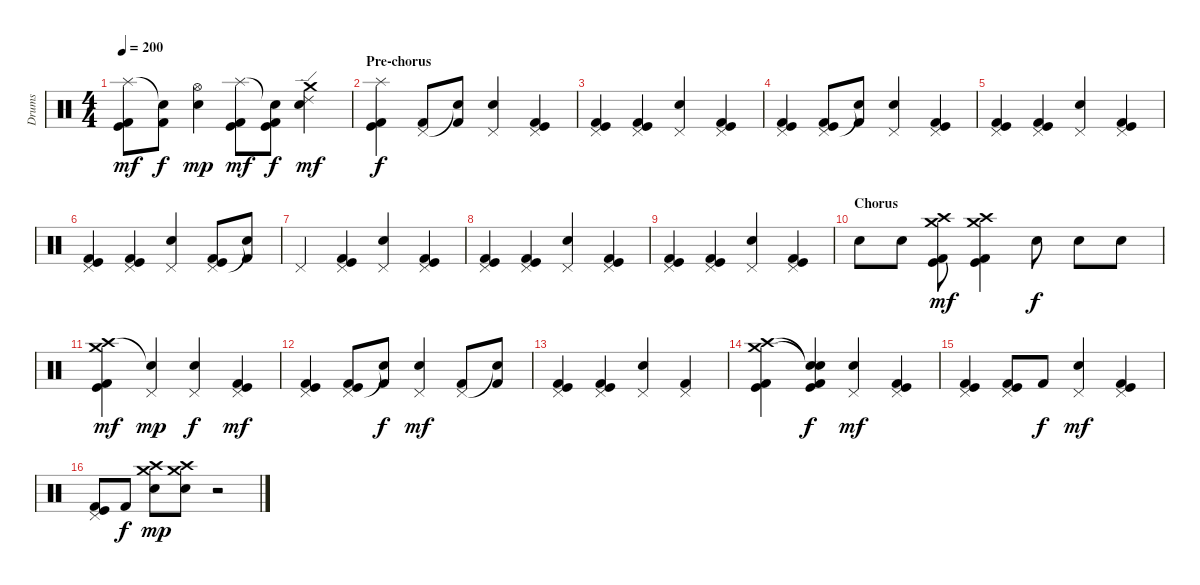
\track ("Drums" "Drums") {instrument percussion}
\staff {score}
\articulation defaults
\ts (4 4)
\tempo 200
\clef neutral
\ks c
("Splash (hit)" "Kick (hit)" "Kick (hit) 2").8{dy mf} ("Snare (hit)"{t} "Kick (hit) 2").8{dy f} ("Hi-Hat (open)" "Snare (hit) 2").4{dy mp} ("Splash (hit)" "Kick (hit)" "Kick (hit) 2").8{dy mf} ("Snare (hit)"{t} "Kick (hit)" "Kick (hit) 2").8{dy f} ("Ride (edge) 2" "Crash medium (hit)" "Snare (hit) 2").4{dy mf} |
\section ("" "Pre-chorus")
("Splash (hit)" "Kick (hit)" "Kick (hit) 2").4{dy f} ("Pedal Hi-Hat (hit)" "Kick (hit) 2").8 ("Snare (hit)"{t} "Kick (hit) 2").8 ("Pedal Hi-Hat (hit)" "Snare (hit) 2").4 ("Pedal Hi-Hat (hit)" "Kick (hit)" "Kick (hit) 2").4 |
("Pedal Hi-Hat (hit)" "Kick (hit)" "Kick (hit) 2").4 ("Pedal Hi-Hat (hit)" "Kick (hit)" "Kick (hit) 2").4 ("Pedal Hi-Hat (hit)" "Snare (hit) 2").4 ("Pedal Hi-Hat (hit)" "Kick (hit)" "Kick (hit) 2").4 |
("Pedal Hi-Hat (hit)" "Kick (hit)" "Kick (hit) 2").4 ("Pedal Hi-Hat (hit)" "Kick (hit)" "Kick (hit) 2").8 ("Snare (hit)"{t} "Kick (hit) 2").8 ("Pedal Hi-Hat (hit)" "Snare (hit) 2").4 ("Pedal Hi-Hat (hit)" "Kick (hit)" "Kick (hit) 2").4 |
("Pedal Hi-Hat (hit)" "Kick (hit)" "Kick (hit) 2").4 ("Pedal Hi-Hat (hit)" "Kick (hit)" "Kick (hit) 2").4 ("Pedal Hi-Hat (hit)" "Snare (hit) 2").4 ("Pedal Hi-Hat (hit)" "Kick (hit)" "Kick (hit) 2").4 |
("Pedal Hi-Hat (hit)" "Kick (hit)" "Kick (hit) 2").4 ("Pedal Hi-Hat (hit)" "Kick (hit)" "Kick (hit) 2").4 ("Pedal Hi-Hat (hit)" "Snare (hit) 2").4 ("Pedal Hi-Hat (hit)" "Kick (hit)" "Kick (hit) 2").8 ("Snare (hit)"{t} "Kick (hit) 2").8 |
"Pedal Hi-Hat (hit)".4 ("Pedal Hi-Hat (hit)" "Kick (hit)" "Kick (hit) 2").4 ("Pedal Hi-Hat (hit)" "Snare (hit) 2").4 ("Pedal Hi-Hat (hit)" "Kick (hit)" "Kick (hit) 2").4 |
("Pedal Hi-Hat (hit)" "Kick (hit)" "Kick (hit) 2").4 ("Pedal Hi-Hat (hit)" "Kick (hit)" "Kick (hit) 2").4 ("Pedal Hi-Hat (hit)" "Snare (hit) 2").4 ("Pedal Hi-Hat (hit)" "Kick (hit)" "Kick (hit) 2").4 |
("Pedal Hi-Hat (hit)" "Kick (hit)" "Kick (hit) 2").4 ("Pedal Hi-Hat (hit)" "Kick (hit)" "Kick (hit) 2").4 ("Pedal Hi-Hat (hit)" "Snare (hit) 2").4 ("Pedal Hi-Hat (hit)" "Kick (hit)" "Kick (hit) 2").4 |
\section ("" "Chorus")
"Snare (hit) 2".8 "Snare (hit) 2".8 ("Crash high (hit)" "Crash medium (hit)" "Kick (hit)" "Kick (hit) 2").8{dy mf} ("Crash high (hit)" "Crash medium (hit)" "Kick (hit)" "Kick (hit) 2").4 "Snare (hit) 2".8{dy f} "Snare (hit) 2".8 "Snare (hit) 2".8 |
("Crash high (hit)" "Crash medium (hit)" "Kick (hit)" "Kick (hit) 2").4{dy mf} ("Snare (hit)"{t} "Pedal Hi-Hat (hit)").4{dy mp} ("Pedal Hi-Hat (hit)" "Snare (hit) 2").4{dy f} ("Pedal Hi-Hat (hit)" "Kick (hit)" "Kick (hit) 2").4{dy mf} |
("Pedal Hi-Hat (hit)" "Kick (hit)" "Kick (hit) 2").4 ("Pedal Hi-Hat (hit)" "Kick (hit)" "Kick (hit) 2").8 ("Snare (hit)"{t} "Kick (hit) 2").8{dy f} ("Pedal Hi-Hat (hit)" "Snare (hit) 2").4{dy mf} ("Pedal Hi-Hat (hit)" "Kick (hit) 2").8 ("Snare (hit)"{t} "Kick (hit) 2").8 |
("Pedal Hi-Hat (hit)" "Kick (hit)" "Kick (hit) 2").4 ("Pedal Hi-Hat (hit)" "Kick (hit)" "Kick (hit) 2").4 ("Pedal Hi-Hat (hit)" "Snare (hit) 2").4 ("Pedal Hi-Hat (hit)" "Kick (hit) 2").4 |
("Crash high (hit)" "Crash medium (hit)" "Kick (hit)" "Kick (hit) 2").4 ("Snare (hit)"{t} "Snare (hit)"{t} "Kick (hit)" "Kick (hit) 2").4{dy f} ("Pedal Hi-Hat (hit)" "Snare (hit) 2").4{dy mf} ("Pedal Hi-Hat (hit)" "Kick (hit)" "Kick (hit) 2").4 |
("Pedal Hi-Hat (hit)" "Kick (hit)" "Kick (hit) 2").4 ("Pedal Hi-Hat (hit)" "Kick (hit)" "Kick (hit) 2").8 "Kick (hit) 2".8{dy f} ("Pedal Hi-Hat (hit)" "Snare (hit) 2").4{dy mf} ("Pedal Hi-Hat (hit)" "Kick (hit)" "Kick (hit) 2").4 |
("Pedal Hi-Hat (hit)" "Kick (hit)" "Kick (hit) 2").8 "Kick (hit) 2".8{dy f} ("Crash high (hit)" "Crash medium (hit)" "Snare (hit) 2").8{dy mp} ("Crash high (hit)" "Crash medium (hit)" "Snare (hit) 2").8 r.2
